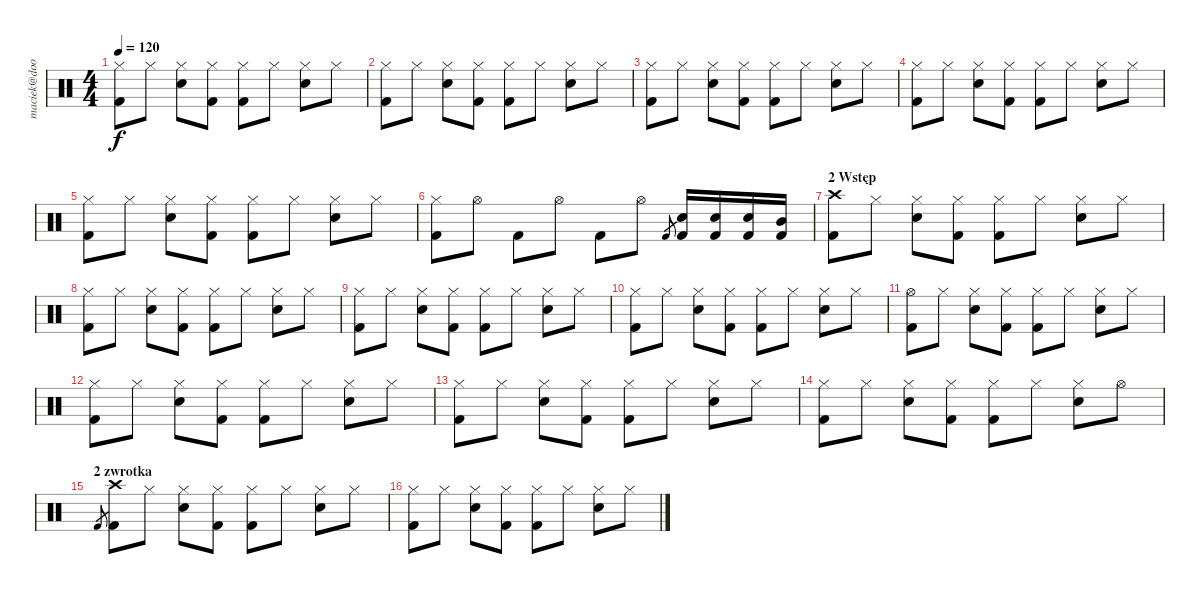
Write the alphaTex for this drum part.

\track ("maciek@doorpol.com" "maciek@doo") {instrument percussion}
\staff {score}
\articulation defaults
\ts (4 4)
\tempo 120
\clef neutral
\ks c
("Hi-Hat (closed)" "Kick (hit) 2").8{dy f} "Hi-Hat (closed)".8 ("Hi-Hat (closed)" "Snare (hit) 2").8 ("Hi-Hat (closed)" "Kick (hit) 2").8 ("Hi-Hat (closed)" "Kick (hit) 2").8 "Hi-Hat (closed)".8 ("Hi-Hat (closed)" "Snare (hit) 2").8 "Hi-Hat (closed)".8 |
("Hi-Hat (closed)" "Kick (hit) 2").8 "Hi-Hat (closed)".8 ("Hi-Hat (closed)" "Snare (hit) 2").8 ("Hi-Hat (closed)" "Kick (hit) 2").8 ("Hi-Hat (closed)" "Kick (hit) 2").8 "Hi-Hat (closed)".8 ("Hi-Hat (closed)" "Snare (hit) 2").8 "Hi-Hat (closed)".8 |
("Hi-Hat (closed)" "Kick (hit) 2").8 "Hi-Hat (closed)".8 ("Hi-Hat (closed)" "Snare (hit) 2").8 ("Hi-Hat (closed)" "Kick (hit) 2").8 ("Hi-Hat (closed)" "Kick (hit) 2").8 "Hi-Hat (closed)".8 ("Hi-Hat (closed)" "Snare (hit) 2").8 "Hi-Hat (closed)".8 |
("Hi-Hat (closed)" "Kick (hit) 2").8 "Hi-Hat (closed)".8 ("Hi-Hat (closed)" "Snare (hit) 2").8 ("Hi-Hat (closed)" "Kick (hit) 2").8 ("Hi-Hat (closed)" "Kick (hit) 2").8 "Hi-Hat (closed)".8 ("Hi-Hat (closed)" "Snare (hit) 2").8 "Hi-Hat (closed)".8 |
("Hi-Hat (closed)" "Kick (hit) 2").8 "Hi-Hat (closed)".8 ("Hi-Hat (closed)" "Snare (hit) 2").8 ("Hi-Hat (closed)" "Kick (hit) 2").8 ("Hi-Hat (closed)" "Kick (hit) 2").8 "Hi-Hat (closed)".8 ("Hi-Hat (closed)" "Snare (hit) 2").8 "Hi-Hat (closed)".8 |
("Hi-Hat (closed)" "Kick (hit) 2").8 "Hi-Hat (open)".8 "Kick (hit) 2".8 "Hi-Hat (open)".8 "Kick (hit) 2".8 "Hi-Hat (open)".8 "Kick (hit) 2".8{gr} ("Kick (hit) 2" "Electric Snare (hit)").16 ("Kick (hit) 2" "Electric Snare (hit)").16 ("Kick (hit) 2" "Snare (hit) 2").16 ("Kick (hit) 2" "Mid Tom (hit)").16 |
\section ("" "2 Wstęp")
("Crash high (hit)" "Kick (hit) 2").8 "Hi-Hat (closed)".8 ("Hi-Hat (closed)" "Snare (hit) 2").8 ("Hi-Hat (closed)" "Kick (hit) 2").8 ("Hi-Hat (closed)" "Kick (hit) 2").8 "Hi-Hat (closed)".8 ("Hi-Hat (closed)" "Snare (hit) 2").8 "Hi-Hat (closed)".8 |
("Hi-Hat (closed)" "Kick (hit) 2").8 "Hi-Hat (closed)".8 ("Hi-Hat (closed)" "Snare (hit) 2").8 ("Hi-Hat (closed)" "Kick (hit) 2").8 ("Hi-Hat (closed)" "Kick (hit) 2").8 "Hi-Hat (closed)".8 ("Hi-Hat (closed)" "Snare (hit) 2").8 "Hi-Hat (closed)".8 |
("Hi-Hat (closed)" "Kick (hit) 2").8 "Hi-Hat (closed)".8 ("Hi-Hat (closed)" "Snare (hit) 2").8 ("Hi-Hat (closed)" "Kick (hit) 2").8 ("Hi-Hat (closed)" "Kick (hit) 2").8 "Hi-Hat (closed)".8 ("Hi-Hat (closed)" "Snare (hit) 2").8 "Hi-Hat (closed)".8 |
("Hi-Hat (closed)" "Kick (hit) 2").8 "Hi-Hat (closed)".8 ("Hi-Hat (closed)" "Snare (hit) 2").8 ("Hi-Hat (closed)" "Kick (hit) 2").8 ("Hi-Hat (closed)" "Kick (hit) 2").8 "Hi-Hat (closed)".8 ("Hi-Hat (closed)" "Snare (hit) 2").8 "Hi-Hat (closed)".8 |
("Hi-Hat (open)" "Kick (hit) 2").8 "Hi-Hat (closed)".8 ("Hi-Hat (closed)" "Snare (hit) 2").8 ("Hi-Hat (closed)" "Kick (hit) 2").8 ("Hi-Hat (closed)" "Kick (hit) 2").8 "Hi-Hat (closed)".8 ("Hi-Hat (closed)" "Snare (hit) 2").8 "Hi-Hat (closed)".8 |
("Hi-Hat (closed)" "Kick (hit) 2").8 "Hi-Hat (closed)".8 ("Hi-Hat (closed)" "Snare (hit) 2").8 ("Hi-Hat (closed)" "Kick (hit) 2").8 ("Hi-Hat (closed)" "Kick (hit) 2").8 "Hi-Hat (closed)".8 ("Hi-Hat (closed)" "Snare (hit) 2").8 "Hi-Hat (closed)".8 |
("Hi-Hat (closed)" "Kick (hit) 2").8 "Hi-Hat (closed)".8 ("Hi-Hat (closed)" "Snare (hit) 2").8 ("Hi-Hat (closed)" "Kick (hit) 2").8 ("Hi-Hat (closed)" "Kick (hit) 2").8 "Hi-Hat (closed)".8 ("Hi-Hat (closed)" "Snare (hit) 2").8 "Hi-Hat (closed)".8 |
("Hi-Hat (closed)" "Kick (hit) 2").8 "Hi-Hat (closed)".8 ("Hi-Hat (closed)" "Snare (hit) 2").8 ("Hi-Hat (closed)" "Kick (hit) 2").8 ("Hi-Hat (closed)" "Kick (hit) 2").8 "Hi-Hat (closed)".8 ("Hi-Hat (closed)" "Snare (hit) 2").8 "Hi-Hat (open)".8 |
\section ("" "2 zwrotka")
"Kick (hit) 2".8{gr} ("Crash high (hit)" "Kick (hit) 2").8 "Hi-Hat (closed)".8 ("Hi-Hat (closed)" "Snare (hit) 2").8 ("Hi-Hat (closed)" "Kick (hit) 2").8 ("Hi-Hat (closed)" "Kick (hit) 2").8 "Hi-Hat (closed)".8 ("Hi-Hat (closed)" "Snare (hit) 2").8 "Hi-Hat (closed)".8 |
("Hi-Hat (closed)" "Kick (hit) 2").8 "Hi-Hat (closed)".8 ("Hi-Hat (closed)" "Snare (hit) 2").8 ("Hi-Hat (closed)" "Kick (hit) 2").8 ("Hi-Hat (closed)" "Kick (hit) 2").8 "Hi-Hat (closed)".8 ("Hi-Hat (closed)" "Snare (hit) 2").8 "Hi-Hat (closed)".8
